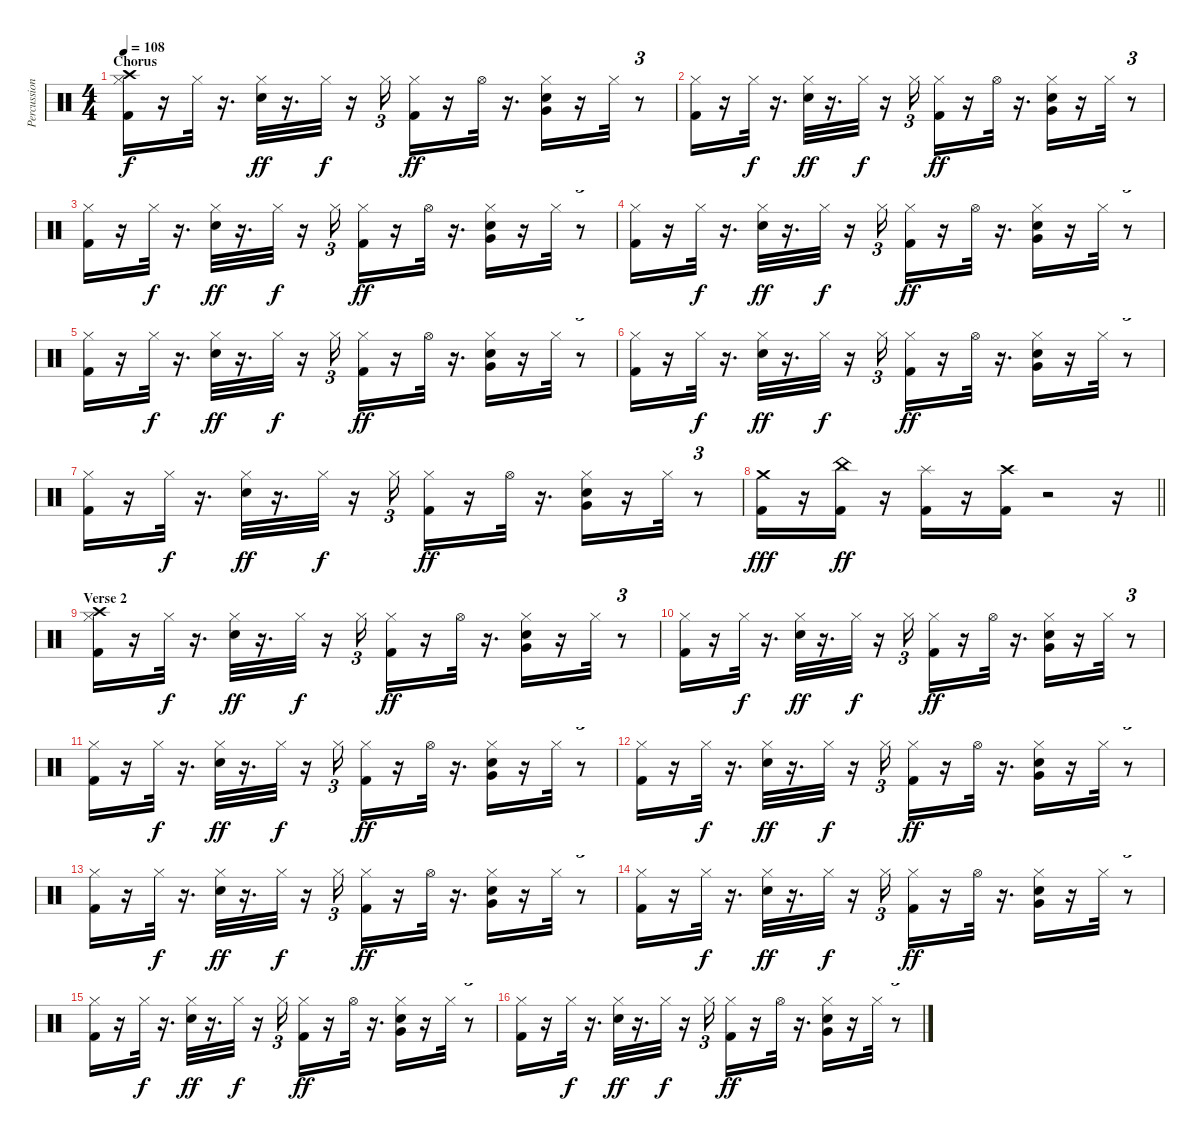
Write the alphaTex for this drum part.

\track ("Percussion" "Percussion") {instrument percussion}
\staff {score}
\articulation defaults
\ts (4 4)
\section ("" "Chorus")
\tempo 108
\clef neutral
\ks c
("Kick (hit) 2"{t} "Hi-Hat (closed)"{t} "Crash high (hit)"{t}).16{dy f volume 12} r.16 "Hi-Hat (closed)".32 r.16{d} ("Snare (hit) 2" "Hi-Hat (closed)").32{dy ff} r.16{d} "Hi-Hat (closed)".32{dy f} r.16 "Hi-Hat (closed)".16{tu (3 2)} ("Hi-Hat (closed)" "Kick (hit) 2").16{dy ff} r.16 "Hi-Hat (open)".32 r.16{d} ("Snare (hit) 2" "Very Low Tom (hit)" "Hi-Hat (closed)").16 r.16 "Hi-Hat (closed)".32 r.8{tu (3 2)} |
("Kick (hit) 2" "Hi-Hat (closed)").16{volume 12} r.16 "Hi-Hat (closed)".32{dy f} r.16{d} ("Snare (hit) 2" "Hi-Hat (closed)").32{dy ff} r.16{d} "Hi-Hat (closed)".32{dy f} r.16 "Hi-Hat (closed)".16{tu (3 2)} ("Hi-Hat (closed)" "Kick (hit) 2").16{dy ff} r.16 "Hi-Hat (open)".32 r.16{d} ("Snare (hit) 2" "Very Low Tom (hit)" "Hi-Hat (closed)").16 r.16 "Hi-Hat (closed)".32 r.8{tu (3 2)} |
("Kick (hit) 2" "Hi-Hat (closed)").16{volume 12} r.16 "Hi-Hat (closed)".32{dy f} r.16{d} ("Snare (hit) 2" "Hi-Hat (closed)").32{dy ff} r.16{d} "Hi-Hat (closed)".32{dy f} r.16 "Hi-Hat (closed)".16{tu (3 2)} ("Hi-Hat (closed)" "Kick (hit) 2").16{dy ff} r.16 "Hi-Hat (open)".32 r.16{d} ("Snare (hit) 2" "Very Low Tom (hit)" "Hi-Hat (closed)").16 r.16 "Hi-Hat (closed)".32 r.8{tu (3 2)} |
("Kick (hit) 2" "Hi-Hat (closed)").16{volume 12} r.16 "Hi-Hat (closed)".32{dy f} r.16{d} ("Snare (hit) 2" "Hi-Hat (closed)").32{dy ff} r.16{d} "Hi-Hat (closed)".32{dy f} r.16 "Hi-Hat (closed)".16{tu (3 2)} ("Hi-Hat (closed)" "Kick (hit) 2").16{dy ff} r.16 "Hi-Hat (open)".32 r.16{d} ("Snare (hit) 2" "Very Low Tom (hit)" "Hi-Hat (closed)").16 r.16 "Hi-Hat (closed)".32 r.8{tu (3 2)} |
("Kick (hit) 2" "Hi-Hat (closed)").16{volume 12} r.16 "Hi-Hat (closed)".32{dy f} r.16{d} ("Snare (hit) 2" "Hi-Hat (closed)").32{dy ff} r.16{d} "Hi-Hat (closed)".32{dy f} r.16 "Hi-Hat (closed)".16{tu (3 2)} ("Hi-Hat (closed)" "Kick (hit) 2").16{dy ff} r.16 "Hi-Hat (open)".32 r.16{d} ("Snare (hit) 2" "Very Low Tom (hit)" "Hi-Hat (closed)").16 r.16 "Hi-Hat (closed)".32 r.8{tu (3 2)} |
("Kick (hit) 2" "Hi-Hat (closed)").16{volume 12} r.16 "Hi-Hat (closed)".32{dy f} r.16{d} ("Snare (hit) 2" "Hi-Hat (closed)").32{dy ff} r.16{d} "Hi-Hat (closed)".32{dy f} r.16 "Hi-Hat (closed)".16{tu (3 2)} ("Hi-Hat (closed)" "Kick (hit) 2").16{dy ff} r.16 "Hi-Hat (open)".32 r.16{d} ("Snare (hit) 2" "Very Low Tom (hit)" "Hi-Hat (closed)").16 r.16 "Hi-Hat (closed)".32 r.8{tu (3 2)} |
("Kick (hit) 2" "Hi-Hat (closed)").16{volume 12} r.16 "Hi-Hat (closed)".32{dy f} r.16{d} ("Snare (hit) 2" "Hi-Hat (closed)").32{dy ff} r.16{d} "Hi-Hat (closed)".32{dy f} r.16 "Hi-Hat (closed)".16{tu (3 2)} ("Hi-Hat (closed)" "Kick (hit) 2").16{dy ff} r.16 "Hi-Hat (open)".32 r.16{d} ("Snare (hit) 2" "Very Low Tom (hit)" "Hi-Hat (closed)").16 r.16 "Hi-Hat (closed)".32 r.8{tu (3 2)} |
\barLineRight lightlight
("Kick (hit) 2" "Crash medium (hit)").16{dy fff} r.16 ("Kick (hit) 2" "China (hit)").16{dy ff} r.16 ("Kick (hit) 2" "Splash (hit)").16 r.16 ("Kick (hit) 2" "Crash high (hit)").16 r.2 r.16 |
\section ("" "Verse 2")
("Kick (hit) 2" "Hi-Hat (closed)" "Crash high (hit)").16{volume 12} r.16 "Hi-Hat (closed)".32{dy f} r.16{d} ("Snare (hit) 2" "Hi-Hat (closed)").32{dy ff} r.16{d} "Hi-Hat (closed)".32{dy f} r.16 "Hi-Hat (closed)".16{tu (3 2)} ("Hi-Hat (closed)" "Kick (hit) 2").16{dy ff} r.16 "Hi-Hat (open)".32 r.16{d} ("Snare (hit) 2" "Very Low Tom (hit)" "Hi-Hat (closed)").16 r.16 "Hi-Hat (closed)".32 r.8{tu (3 2)} |
("Kick (hit) 2" "Hi-Hat (closed)").16{volume 12} r.16 "Hi-Hat (closed)".32{dy f} r.16{d} ("Snare (hit) 2" "Hi-Hat (closed)").32{dy ff} r.16{d} "Hi-Hat (closed)".32{dy f} r.16 "Hi-Hat (closed)".16{tu (3 2)} ("Hi-Hat (closed)" "Kick (hit) 2").16{dy ff} r.16 "Hi-Hat (open)".32 r.16{d} ("Snare (hit) 2" "Very Low Tom (hit)" "Hi-Hat (closed)").16 r.16 "Hi-Hat (closed)".32 r.8{tu (3 2)} |
("Kick (hit) 2" "Hi-Hat (closed)").16{volume 12} r.16 "Hi-Hat (closed)".32{dy f} r.16{d} ("Snare (hit) 2" "Hi-Hat (closed)").32{dy ff} r.16{d} "Hi-Hat (closed)".32{dy f} r.16 "Hi-Hat (closed)".16{tu (3 2)} ("Hi-Hat (closed)" "Kick (hit) 2").16{dy ff} r.16 "Hi-Hat (open)".32 r.16{d} ("Snare (hit) 2" "Very Low Tom (hit)" "Hi-Hat (closed)").16 r.16 "Hi-Hat (closed)".32 r.8{tu (3 2)} |
("Kick (hit) 2" "Hi-Hat (closed)").16{volume 12} r.16 "Hi-Hat (closed)".32{dy f} r.16{d} ("Snare (hit) 2" "Hi-Hat (closed)").32{dy ff} r.16{d} "Hi-Hat (closed)".32{dy f} r.16 "Hi-Hat (closed)".16{tu (3 2)} ("Hi-Hat (closed)" "Kick (hit) 2").16{dy ff} r.16 "Hi-Hat (open)".32 r.16{d} ("Snare (hit) 2" "Very Low Tom (hit)" "Hi-Hat (closed)").16 r.16 "Hi-Hat (closed)".32 r.8{tu (3 2)} |
("Kick (hit) 2" "Hi-Hat (closed)").16{volume 12} r.16 "Hi-Hat (closed)".32{dy f} r.16{d} ("Snare (hit) 2" "Hi-Hat (closed)").32{dy ff} r.16{d} "Hi-Hat (closed)".32{dy f} r.16 "Hi-Hat (closed)".16{tu (3 2)} ("Hi-Hat (closed)" "Kick (hit) 2").16{dy ff} r.16 "Hi-Hat (open)".32 r.16{d} ("Snare (hit) 2" "Very Low Tom (hit)" "Hi-Hat (closed)").16 r.16 "Hi-Hat (closed)".32 r.8{tu (3 2)} |
("Kick (hit) 2" "Hi-Hat (closed)").16{volume 12} r.16 "Hi-Hat (closed)".32{dy f} r.16{d} ("Snare (hit) 2" "Hi-Hat (closed)").32{dy ff} r.16{d} "Hi-Hat (closed)".32{dy f} r.16 "Hi-Hat (closed)".16{tu (3 2)} ("Hi-Hat (closed)" "Kick (hit) 2").16{dy ff} r.16 "Hi-Hat (open)".32 r.16{d} ("Snare (hit) 2" "Very Low Tom (hit)" "Hi-Hat (closed)").16 r.16 "Hi-Hat (closed)".32 r.8{tu (3 2)} |
("Kick (hit) 2" "Hi-Hat (closed)").16{volume 12} r.16 "Hi-Hat (closed)".32{dy f} r.16{d} ("Snare (hit) 2" "Hi-Hat (closed)").32{dy ff} r.16{d} "Hi-Hat (closed)".32{dy f} r.16 "Hi-Hat (closed)".16{tu (3 2)} ("Hi-Hat (closed)" "Kick (hit) 2").16{dy ff} r.16 "Hi-Hat (open)".32 r.16{d} ("Snare (hit) 2" "Very Low Tom (hit)" "Hi-Hat (closed)").16 r.16 "Hi-Hat (closed)".32 r.8{tu (3 2)} |
("Kick (hit) 2" "Hi-Hat (closed)").16{volume 12} r.16 "Hi-Hat (closed)".32{dy f} r.16{d} ("Snare (hit) 2" "Hi-Hat (closed)").32{dy ff} r.16{d} "Hi-Hat (closed)".32{dy f} r.16 "Hi-Hat (closed)".16{tu (3 2)} ("Hi-Hat (closed)" "Kick (hit) 2").16{dy ff} r.16 "Hi-Hat (open)".32 r.16{d} ("Snare (hit) 2" "Very Low Tom (hit)" "Hi-Hat (closed)").16 r.16 "Hi-Hat (closed)".32 r.8{tu (3 2)}
